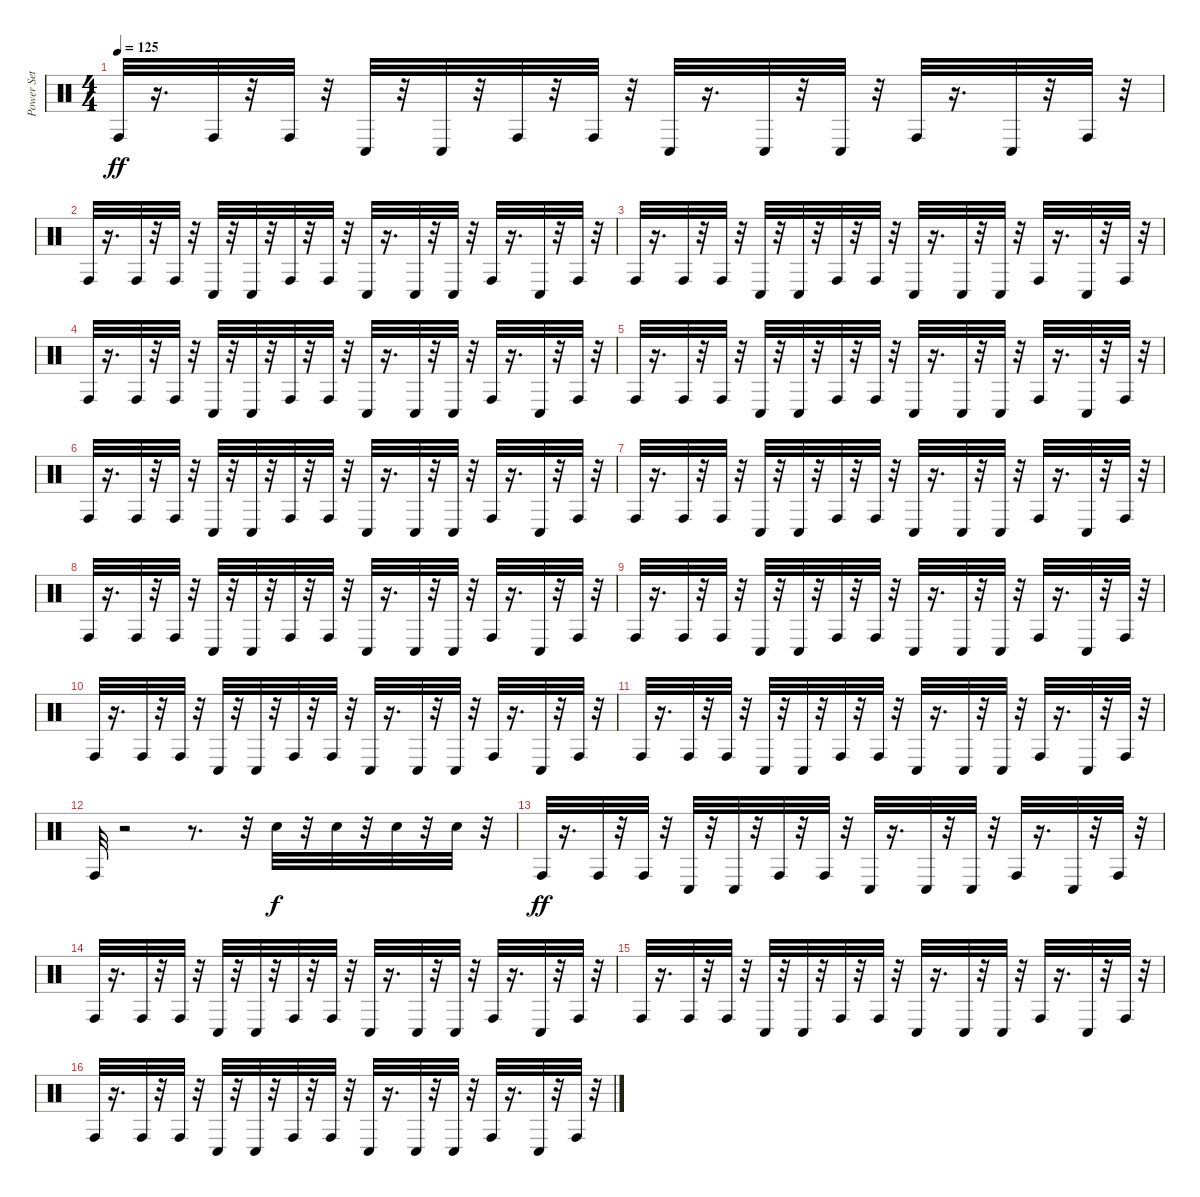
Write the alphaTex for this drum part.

\track ("Power Set" "Power Set") {instrument percussion}
\staff {score}
\articulation defaults
\ts (4 4)
\tempo 125
\clef neutral
\ks c "Conga high (hit)".32{dy ff}
r.16{d} "Conga high (hit)".32 r.32 "Conga high (hit)".32 r.32 "Conga low (hit)".32 r.32 "Conga low (hit)".32 r.32 "Conga high (hit)".32 r.32 "Conga high (hit)".32 r.32 "Conga low (hit)".32 r.16{d} "Conga low (hit)".32 r.32 "Conga low (hit)".32 r.32 "Conga high (hit)".32 r.16{d} "Conga low (hit)".32 r.32 "Conga high (hit)".32 r.32 |
"Conga high (hit)".32 r.16{d} "Conga high (hit)".32 r.32 "Conga high (hit)".32 r.32 "Conga low (hit)".32 r.32 "Conga low (hit)".32 r.32 "Conga high (hit)".32 r.32 "Conga high (hit)".32 r.32 "Conga low (hit)".32 r.16{d} "Conga low (hit)".32 r.32 "Conga low (hit)".32 r.32 "Conga high (hit)".32 r.16{d} "Conga low (hit)".32 r.32 "Conga high (hit)".32 r.32 |
"Conga high (hit)".32 r.16{d} "Conga high (hit)".32 r.32 "Conga high (hit)".32 r.32 "Conga low (hit)".32 r.32 "Conga low (hit)".32 r.32 "Conga high (hit)".32 r.32 "Conga high (hit)".32 r.32 "Conga low (hit)".32 r.16{d} "Conga low (hit)".32 r.32 "Conga low (hit)".32 r.32 "Conga high (hit)".32 r.16{d} "Conga low (hit)".32 r.32 "Conga high (hit)".32 r.32 |
"Conga high (hit)".32 r.16{d} "Conga high (hit)".32 r.32 "Conga high (hit)".32 r.32 "Conga low (hit)".32 r.32 "Conga low (hit)".32 r.32 "Conga high (hit)".32 r.32 "Conga high (hit)".32 r.32 "Conga low (hit)".32 r.16{d} "Conga low (hit)".32 r.32 "Conga low (hit)".32 r.32 "Conga high (hit)".32 r.16{d} "Conga low (hit)".32 r.32 "Conga high (hit)".32 r.32 |
"Conga high (hit)".32 r.16{d} "Conga high (hit)".32 r.32 "Conga high (hit)".32 r.32 "Conga low (hit)".32 r.32 "Conga low (hit)".32 r.32 "Conga high (hit)".32 r.32 "Conga high (hit)".32 r.32 "Conga low (hit)".32 r.16{d} "Conga low (hit)".32 r.32 "Conga low (hit)".32 r.32 "Conga high (hit)".32 r.16{d} "Conga low (hit)".32 r.32 "Conga high (hit)".32 r.32 |
"Conga high (hit)".32 r.16{d} "Conga high (hit)".32 r.32 "Conga high (hit)".32 r.32 "Conga low (hit)".32 r.32 "Conga low (hit)".32 r.32 "Conga high (hit)".32 r.32 "Conga high (hit)".32 r.32 "Conga low (hit)".32 r.16{d} "Conga low (hit)".32 r.32 "Conga low (hit)".32 r.32 "Conga high (hit)".32 r.16{d} "Conga low (hit)".32 r.32 "Conga high (hit)".32 r.32 |
"Conga high (hit)".32 r.16{d} "Conga high (hit)".32 r.32 "Conga high (hit)".32 r.32 "Conga low (hit)".32 r.32 "Conga low (hit)".32 r.32 "Conga high (hit)".32 r.32 "Conga high (hit)".32 r.32 "Conga low (hit)".32 r.16{d} "Conga low (hit)".32 r.32 "Conga low (hit)".32 r.32 "Conga high (hit)".32 r.16{d} "Conga low (hit)".32 r.32 "Conga high (hit)".32 r.32 |
"Conga high (hit)".32 r.16{d} "Conga high (hit)".32 r.32 "Conga high (hit)".32 r.32 "Conga low (hit)".32 r.32 "Conga low (hit)".32 r.32 "Conga high (hit)".32 r.32 "Conga high (hit)".32 r.32 "Conga low (hit)".32 r.16{d} "Conga low (hit)".32 r.32 "Conga low (hit)".32 r.32 "Conga high (hit)".32 r.16{d} "Conga low (hit)".32 r.32 "Conga high (hit)".32 r.32 |
"Conga high (hit)".32 r.16{d} "Conga high (hit)".32 r.32 "Conga high (hit)".32 r.32 "Conga low (hit)".32 r.32 "Conga low (hit)".32 r.32 "Conga high (hit)".32 r.32 "Conga high (hit)".32 r.32 "Conga low (hit)".32 r.16{d} "Conga low (hit)".32 r.32 "Conga low (hit)".32 r.32 "Conga high (hit)".32 r.16{d} "Conga low (hit)".32 r.32 "Conga high (hit)".32 r.32 |
"Conga high (hit)".32 r.16{d} "Conga high (hit)".32 r.32 "Conga high (hit)".32 r.32 "Conga low (hit)".32 r.32 "Conga low (hit)".32 r.32 "Conga high (hit)".32 r.32 "Conga high (hit)".32 r.32 "Conga low (hit)".32 r.16{d} "Conga low (hit)".32 r.32 "Conga low (hit)".32 r.32 "Conga high (hit)".32 r.16{d} "Conga low (hit)".32 r.32 "Conga high (hit)".32 r.32 |
"Conga high (hit)".32 r.16{d} "Conga high (hit)".32 r.32 "Conga high (hit)".32 r.32 "Conga low (hit)".32 r.32 "Conga low (hit)".32 r.32 "Conga high (hit)".32 r.32 "Conga high (hit)".32 r.32 "Conga low (hit)".32 r.16{d} "Conga low (hit)".32 r.32 "Conga low (hit)".32 r.32 "Conga high (hit)".32 r.16{d} "Conga low (hit)".32 r.32 "Conga high (hit)".32 r.32 |
"Conga high (hit)".32 r.2 r.8{d} r.32 "Electric Snare (hit)".32{dy f} r.32 "Electric Snare (hit)".32 r.32 "Electric Snare (hit)".32 r.32 "Electric Snare (hit)".32 r.32 |
"Conga high (hit)".32{dy ff} r.16{d} "Conga high (hit)".32 r.32 "Conga high (hit)".32 r.32 "Conga low (hit)".32 r.32 "Conga low (hit)".32 r.32 "Conga high (hit)".32 r.32 "Conga high (hit)".32 r.32 "Conga low (hit)".32 r.16{d} "Conga low (hit)".32 r.32 "Conga low (hit)".32 r.32 "Conga high (hit)".32 r.16{d} "Conga low (hit)".32 r.32 "Conga high (hit)".32 r.32 |
"Conga high (hit)".32 r.16{d} "Conga high (hit)".32 r.32 "Conga high (hit)".32 r.32 "Conga low (hit)".32 r.32 "Conga low (hit)".32 r.32 "Conga high (hit)".32 r.32 "Conga high (hit)".32 r.32 "Conga low (hit)".32 r.16{d} "Conga low (hit)".32 r.32 "Conga low (hit)".32 r.32 "Conga high (hit)".32 r.16{d} "Conga low (hit)".32 r.32 "Conga high (hit)".32 r.32 |
"Conga high (hit)".32 r.16{d} "Conga high (hit)".32 r.32 "Conga high (hit)".32 r.32 "Conga low (hit)".32 r.32 "Conga low (hit)".32 r.32 "Conga high (hit)".32 r.32 "Conga high (hit)".32 r.32 "Conga low (hit)".32 r.16{d} "Conga low (hit)".32 r.32 "Conga low (hit)".32 r.32 "Conga high (hit)".32 r.16{d} "Conga low (hit)".32 r.32 "Conga high (hit)".32 r.32 |
"Conga high (hit)".32 r.16{d} "Conga high (hit)".32 r.32 "Conga high (hit)".32 r.32 "Conga low (hit)".32 r.32 "Conga low (hit)".32 r.32 "Conga high (hit)".32 r.32 "Conga high (hit)".32 r.32 "Conga low (hit)".32 r.16{d} "Conga low (hit)".32 r.32 "Conga low (hit)".32 r.32 "Conga high (hit)".32 r.16{d} "Conga low (hit)".32 r.32 "Conga high (hit)".32 r.32
